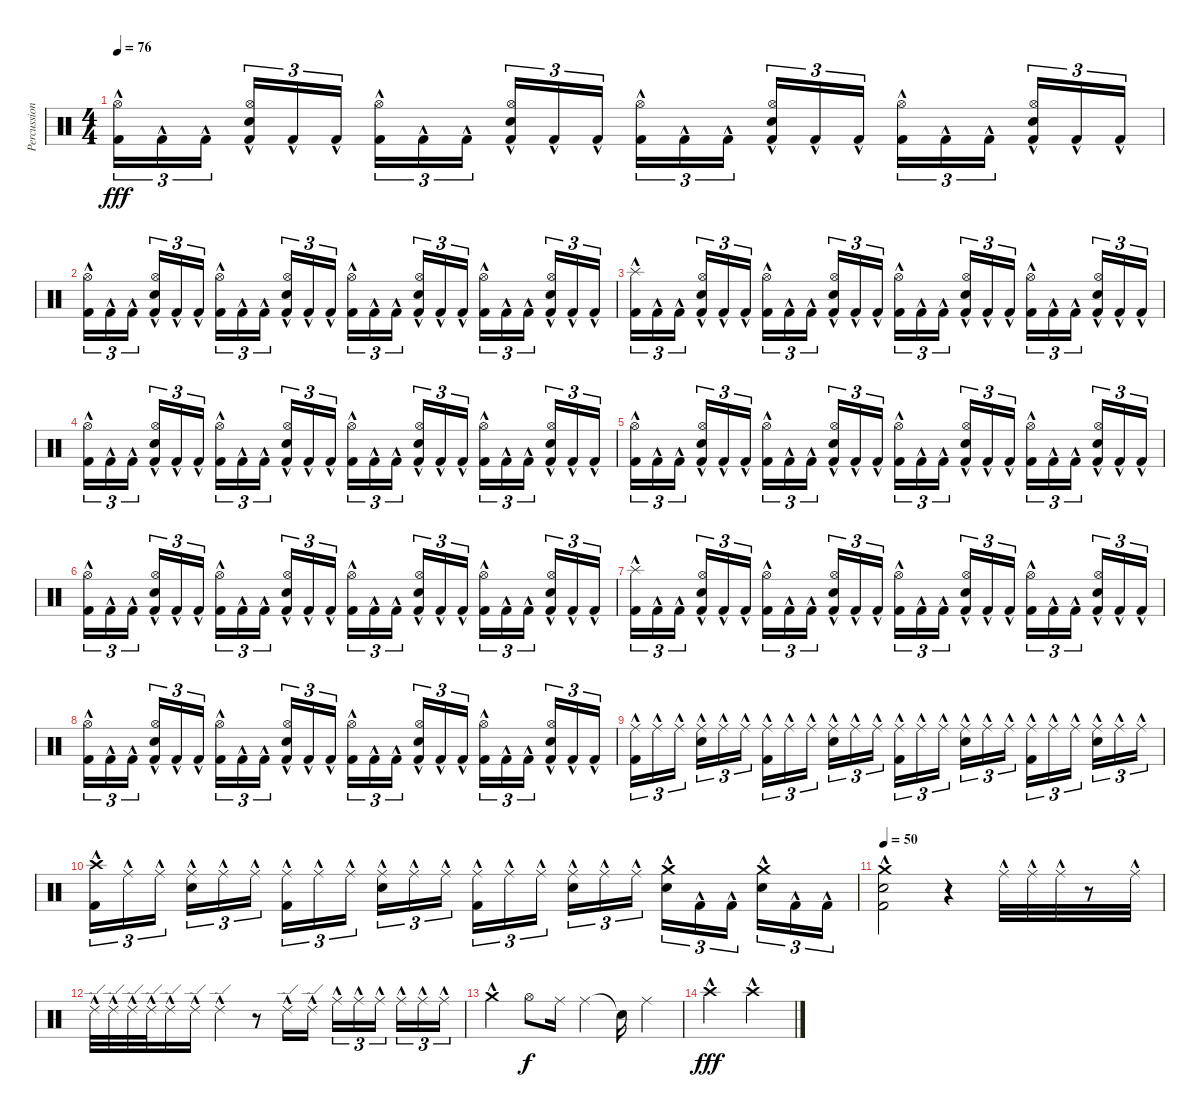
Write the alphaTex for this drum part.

\track ("Percussion" "Percussion") {instrument percussion}
\staff {score}
\articulation defaults
\ts (4 4)
\tempo 76
\clef neutral
\ks c
("Kick (hit) 2"{hac} "Hi-Hat (open)"{hac}).16{tu (3 2) dy fff} "Kick (hit) 2"{hac}.16{tu (3 2)} "Kick (hit) 2"{hac}.16{tu (3 2) beam splitsecondary} ("Kick (hit) 2"{hac} "Electric Snare (hit)"{hac} "Hi-Hat (open)"{hac}).16{tu (3 2)} "Kick (hit) 2"{hac}.16{tu (3 2)} "Kick (hit) 2"{hac}.16{tu (3 2)} ("Hi-Hat (open)"{hac} "Kick (hit) 2"{hac}).16{tu (3 2)} "Kick (hit) 2"{hac}.16{tu (3 2)} "Kick (hit) 2"{hac}.16{tu (3 2) beam splitsecondary} ("Kick (hit) 2"{hac} "Electric Snare (hit)"{hac} "Hi-Hat (open)"{hac}).16{tu (3 2)} "Kick (hit) 2"{hac}.16{tu (3 2)} "Kick (hit) 2"{hac}.16{tu (3 2)} ("Kick (hit) 2"{hac} "Hi-Hat (open)"{hac}).16{tu (3 2)} "Kick (hit) 2"{hac}.16{tu (3 2)} "Kick (hit) 2"{hac}.16{tu (3 2) beam splitsecondary} ("Kick (hit) 2"{hac} "Electric Snare (hit)"{hac} "Hi-Hat (open)"{hac}).16{tu (3 2)} "Kick (hit) 2"{hac}.16{tu (3 2)} "Kick (hit) 2"{hac}.16{tu (3 2)} ("Hi-Hat (open)"{hac} "Kick (hit) 2"{hac}).16{tu (3 2)} "Kick (hit) 2"{hac}.16{tu (3 2)} "Kick (hit) 2"{hac}.16{tu (3 2) beam splitsecondary} ("Kick (hit) 2"{hac} "Electric Snare (hit)"{hac} "Hi-Hat (open)"{hac}).16{tu (3 2)} "Kick (hit) 2"{hac}.16{tu (3 2)} "Kick (hit) 2"{hac}.16{tu (3 2)} |
("Kick (hit) 2"{hac} "Hi-Hat (open)"{hac}).16{tu (3 2)} "Kick (hit) 2"{hac}.16{tu (3 2)} "Kick (hit) 2"{hac}.16{tu (3 2) beam splitsecondary} ("Kick (hit) 2"{hac} "Electric Snare (hit)"{hac} "Hi-Hat (open)"{hac}).16{tu (3 2)} "Kick (hit) 2"{hac}.16{tu (3 2)} "Kick (hit) 2"{hac}.16{tu (3 2)} ("Hi-Hat (open)"{hac} "Kick (hit) 2"{hac}).16{tu (3 2)} "Kick (hit) 2"{hac}.16{tu (3 2)} "Kick (hit) 2"{hac}.16{tu (3 2) beam splitsecondary} ("Kick (hit) 2"{hac} "Electric Snare (hit)"{hac} "Hi-Hat (open)"{hac}).16{tu (3 2)} "Kick (hit) 2"{hac}.16{tu (3 2)} "Kick (hit) 2"{hac}.16{tu (3 2)} ("Kick (hit) 2"{hac} "Hi-Hat (open)"{hac}).16{tu (3 2)} "Kick (hit) 2"{hac}.16{tu (3 2)} "Kick (hit) 2"{hac}.16{tu (3 2) beam splitsecondary} ("Kick (hit) 2"{hac} "Electric Snare (hit)"{hac} "Hi-Hat (open)"{hac}).16{tu (3 2)} "Kick (hit) 2"{hac}.16{tu (3 2)} "Kick (hit) 2"{hac}.16{tu (3 2)} ("Hi-Hat (open)"{hac} "Kick (hit) 2"{hac}).16{tu (3 2)} "Kick (hit) 2"{hac}.16{tu (3 2)} "Kick (hit) 2"{hac}.16{tu (3 2) beam splitsecondary} ("Kick (hit) 2"{hac} "Electric Snare (hit)"{hac} "Hi-Hat (open)"{hac}).16{tu (3 2)} "Kick (hit) 2"{hac}.16{tu (3 2)} "Kick (hit) 2"{hac}.16{tu (3 2)} |
("Kick (hit) 2"{hac} "Splash (hit)"{hac}).16{tu (3 2)} "Kick (hit) 2"{hac}.16{tu (3 2)} "Kick (hit) 2"{hac}.16{tu (3 2) beam splitsecondary} ("Kick (hit) 2"{hac} "Electric Snare (hit)"{hac} "Hi-Hat (open)"{hac}).16{tu (3 2)} "Kick (hit) 2"{hac}.16{tu (3 2)} "Kick (hit) 2"{hac}.16{tu (3 2)} ("Hi-Hat (open)"{hac} "Kick (hit) 2"{hac}).16{tu (3 2)} "Kick (hit) 2"{hac}.16{tu (3 2)} "Kick (hit) 2"{hac}.16{tu (3 2) beam splitsecondary} ("Kick (hit) 2"{hac} "Electric Snare (hit)"{hac} "Hi-Hat (open)"{hac}).16{tu (3 2)} "Kick (hit) 2"{hac}.16{tu (3 2)} "Kick (hit) 2"{hac}.16{tu (3 2)} ("Kick (hit) 2"{hac} "Hi-Hat (open)"{hac}).16{tu (3 2)} "Kick (hit) 2"{hac}.16{tu (3 2)} "Kick (hit) 2"{hac}.16{tu (3 2) beam splitsecondary} ("Kick (hit) 2"{hac} "Electric Snare (hit)"{hac} "Hi-Hat (open)"{hac}).16{tu (3 2)} "Kick (hit) 2"{hac}.16{tu (3 2)} "Kick (hit) 2"{hac}.16{tu (3 2)} ("Hi-Hat (open)"{hac} "Kick (hit) 2"{hac}).16{tu (3 2)} "Kick (hit) 2"{hac}.16{tu (3 2)} "Kick (hit) 2"{hac}.16{tu (3 2) beam splitsecondary} ("Kick (hit) 2"{hac} "Electric Snare (hit)"{hac} "Hi-Hat (open)"{hac}).16{tu (3 2)} "Kick (hit) 2"{hac}.16{tu (3 2)} "Kick (hit) 2"{hac}.16{tu (3 2)} |
("Kick (hit) 2"{hac} "Hi-Hat (open)"{hac}).16{tu (3 2)} "Kick (hit) 2"{hac}.16{tu (3 2)} "Kick (hit) 2"{hac}.16{tu (3 2) beam splitsecondary} ("Kick (hit) 2"{hac} "Electric Snare (hit)"{hac} "Hi-Hat (open)"{hac}).16{tu (3 2)} "Kick (hit) 2"{hac}.16{tu (3 2)} "Kick (hit) 2"{hac}.16{tu (3 2)} ("Hi-Hat (open)"{hac} "Kick (hit) 2"{hac}).16{tu (3 2)} "Kick (hit) 2"{hac}.16{tu (3 2)} "Kick (hit) 2"{hac}.16{tu (3 2) beam splitsecondary} ("Kick (hit) 2"{hac} "Electric Snare (hit)"{hac} "Hi-Hat (open)"{hac}).16{tu (3 2)} "Kick (hit) 2"{hac}.16{tu (3 2)} "Kick (hit) 2"{hac}.16{tu (3 2)} ("Kick (hit) 2"{hac} "Hi-Hat (open)"{hac}).16{tu (3 2)} "Kick (hit) 2"{hac}.16{tu (3 2)} "Kick (hit) 2"{hac}.16{tu (3 2) beam splitsecondary} ("Kick (hit) 2"{hac} "Electric Snare (hit)"{hac} "Hi-Hat (open)"{hac}).16{tu (3 2)} "Kick (hit) 2"{hac}.16{tu (3 2)} "Kick (hit) 2"{hac}.16{tu (3 2)} ("Hi-Hat (open)"{hac} "Kick (hit) 2"{hac}).16{tu (3 2)} "Kick (hit) 2"{hac}.16{tu (3 2)} "Kick (hit) 2"{hac}.16{tu (3 2) beam splitsecondary} ("Kick (hit) 2"{hac} "Electric Snare (hit)"{hac} "Hi-Hat (open)"{hac}).16{tu (3 2)} "Kick (hit) 2"{hac}.16{tu (3 2)} "Kick (hit) 2"{hac}.16{tu (3 2)} |
("Kick (hit) 2"{hac} "Hi-Hat (open)"{hac}).16{tu (3 2)} "Kick (hit) 2"{hac}.16{tu (3 2)} "Kick (hit) 2"{hac}.16{tu (3 2) beam splitsecondary} ("Kick (hit) 2"{hac} "Electric Snare (hit)"{hac} "Hi-Hat (open)"{hac}).16{tu (3 2)} "Kick (hit) 2"{hac}.16{tu (3 2)} "Kick (hit) 2"{hac}.16{tu (3 2)} ("Hi-Hat (open)"{hac} "Kick (hit) 2"{hac}).16{tu (3 2)} "Kick (hit) 2"{hac}.16{tu (3 2)} "Kick (hit) 2"{hac}.16{tu (3 2) beam splitsecondary} ("Kick (hit) 2"{hac} "Electric Snare (hit)"{hac} "Hi-Hat (open)"{hac}).16{tu (3 2)} "Kick (hit) 2"{hac}.16{tu (3 2)} "Kick (hit) 2"{hac}.16{tu (3 2)} ("Kick (hit) 2"{hac} "Hi-Hat (open)"{hac}).16{tu (3 2)} "Kick (hit) 2"{hac}.16{tu (3 2)} "Kick (hit) 2"{hac}.16{tu (3 2) beam splitsecondary} ("Kick (hit) 2"{hac} "Electric Snare (hit)"{hac} "Hi-Hat (open)"{hac}).16{tu (3 2)} "Kick (hit) 2"{hac}.16{tu (3 2)} "Kick (hit) 2"{hac}.16{tu (3 2)} ("Hi-Hat (open)"{hac} "Kick (hit) 2"{hac}).16{tu (3 2)} "Kick (hit) 2"{hac}.16{tu (3 2)} "Kick (hit) 2"{hac}.16{tu (3 2) beam splitsecondary} ("Kick (hit) 2"{hac} "Electric Snare (hit)"{hac} "Hi-Hat (open)"{hac}).16{tu (3 2)} "Kick (hit) 2"{hac}.16{tu (3 2)} "Kick (hit) 2"{hac}.16{tu (3 2)} |
("Kick (hit) 2"{hac} "Hi-Hat (open)"{hac}).16{tu (3 2)} "Kick (hit) 2"{hac}.16{tu (3 2)} "Kick (hit) 2"{hac}.16{tu (3 2) beam splitsecondary} ("Kick (hit) 2"{hac} "Electric Snare (hit)"{hac} "Hi-Hat (open)"{hac}).16{tu (3 2)} "Kick (hit) 2"{hac}.16{tu (3 2)} "Kick (hit) 2"{hac}.16{tu (3 2)} ("Hi-Hat (open)"{hac} "Kick (hit) 2"{hac}).16{tu (3 2)} "Kick (hit) 2"{hac}.16{tu (3 2)} "Kick (hit) 2"{hac}.16{tu (3 2) beam splitsecondary} ("Kick (hit) 2"{hac} "Electric Snare (hit)"{hac} "Hi-Hat (open)"{hac}).16{tu (3 2)} "Kick (hit) 2"{hac}.16{tu (3 2)} "Kick (hit) 2"{hac}.16{tu (3 2)} ("Kick (hit) 2"{hac} "Hi-Hat (open)"{hac}).16{tu (3 2)} "Kick (hit) 2"{hac}.16{tu (3 2)} "Kick (hit) 2"{hac}.16{tu (3 2) beam splitsecondary} ("Kick (hit) 2"{hac} "Electric Snare (hit)"{hac} "Hi-Hat (open)"{hac}).16{tu (3 2)} "Kick (hit) 2"{hac}.16{tu (3 2)} "Kick (hit) 2"{hac}.16{tu (3 2)} ("Hi-Hat (open)"{hac} "Kick (hit) 2"{hac}).16{tu (3 2)} "Kick (hit) 2"{hac}.16{tu (3 2)} "Kick (hit) 2"{hac}.16{tu (3 2) beam splitsecondary} ("Kick (hit) 2"{hac} "Electric Snare (hit)"{hac} "Hi-Hat (open)"{hac}).16{tu (3 2)} "Kick (hit) 2"{hac}.16{tu (3 2)} "Kick (hit) 2"{hac}.16{tu (3 2)} |
("Kick (hit) 2"{hac} "Splash (hit)"{hac}).16{tu (3 2)} "Kick (hit) 2"{hac}.16{tu (3 2)} "Kick (hit) 2"{hac}.16{tu (3 2) beam splitsecondary} ("Kick (hit) 2"{hac} "Electric Snare (hit)"{hac} "Hi-Hat (open)"{hac}).16{tu (3 2)} "Kick (hit) 2"{hac}.16{tu (3 2)} "Kick (hit) 2"{hac}.16{tu (3 2)} ("Hi-Hat (open)"{hac} "Kick (hit) 2"{hac}).16{tu (3 2)} "Kick (hit) 2"{hac}.16{tu (3 2)} "Kick (hit) 2"{hac}.16{tu (3 2) beam splitsecondary} ("Kick (hit) 2"{hac} "Electric Snare (hit)"{hac} "Hi-Hat (open)"{hac}).16{tu (3 2)} "Kick (hit) 2"{hac}.16{tu (3 2)} "Kick (hit) 2"{hac}.16{tu (3 2)} ("Kick (hit) 2"{hac} "Hi-Hat (open)"{hac}).16{tu (3 2)} "Kick (hit) 2"{hac}.16{tu (3 2)} "Kick (hit) 2"{hac}.16{tu (3 2) beam splitsecondary} ("Kick (hit) 2"{hac} "Electric Snare (hit)"{hac} "Hi-Hat (open)"{hac}).16{tu (3 2)} "Kick (hit) 2"{hac}.16{tu (3 2)} "Kick (hit) 2"{hac}.16{tu (3 2)} ("Hi-Hat (open)"{hac} "Kick (hit) 2"{hac}).16{tu (3 2)} "Kick (hit) 2"{hac}.16{tu (3 2)} "Kick (hit) 2"{hac}.16{tu (3 2) beam splitsecondary} ("Kick (hit) 2"{hac} "Electric Snare (hit)"{hac} "Hi-Hat (open)"{hac}).16{tu (3 2)} "Kick (hit) 2"{hac}.16{tu (3 2)} "Kick (hit) 2"{hac}.16{tu (3 2)} |
("Kick (hit) 2"{hac} "Hi-Hat (open)"{hac}).16{tu (3 2)} "Kick (hit) 2"{hac}.16{tu (3 2)} "Kick (hit) 2"{hac}.16{tu (3 2) beam splitsecondary} ("Kick (hit) 2"{hac} "Electric Snare (hit)"{hac} "Hi-Hat (open)"{hac}).16{tu (3 2)} "Kick (hit) 2"{hac}.16{tu (3 2)} "Kick (hit) 2"{hac}.16{tu (3 2)} ("Hi-Hat (open)"{hac} "Kick (hit) 2"{hac}).16{tu (3 2)} "Kick (hit) 2"{hac}.16{tu (3 2)} "Kick (hit) 2"{hac}.16{tu (3 2) beam splitsecondary} ("Kick (hit) 2"{hac} "Electric Snare (hit)"{hac} "Hi-Hat (open)"{hac}).16{tu (3 2)} "Kick (hit) 2"{hac}.16{tu (3 2)} "Kick (hit) 2"{hac}.16{tu (3 2)} ("Kick (hit) 2"{hac} "Hi-Hat (open)"{hac}).16{tu (3 2)} "Kick (hit) 2"{hac}.16{tu (3 2)} "Kick (hit) 2"{hac}.16{tu (3 2) beam splitsecondary} ("Kick (hit) 2"{hac} "Electric Snare (hit)"{hac} "Hi-Hat (open)"{hac}).16{tu (3 2)} "Kick (hit) 2"{hac}.16{tu (3 2)} "Kick (hit) 2"{hac}.16{tu (3 2)} ("Hi-Hat (open)"{hac} "Kick (hit) 2"{hac}).16{tu (3 2)} "Kick (hit) 2"{hac}.16{tu (3 2)} "Kick (hit) 2"{hac}.16{tu (3 2) beam splitsecondary} ("Kick (hit) 2"{hac} "Electric Snare (hit)"{hac} "Hi-Hat (open)"{hac}).16{tu (3 2)} "Kick (hit) 2"{hac}.16{tu (3 2)} "Kick (hit) 2"{hac}.16{tu (3 2)} |
("Ride (middle)"{hac} "Kick (hit) 2"{hac}).16{tu (3 2)} "Ride (middle)"{hac}.16{tu (3 2)} "Ride (middle)"{hac}.16{tu (3 2) beam splitsecondary} ("Ride (middle)"{hac} "Electric Snare (hit)"{hac}).16{tu (3 2)} "Ride (middle)"{hac}.16{tu (3 2)} "Ride (middle)"{hac}.16{tu (3 2)} ("Ride (middle)"{hac} "Kick (hit) 2"{hac}).16{tu (3 2)} "Ride (middle)"{hac}.16{tu (3 2)} "Ride (middle)"{hac}.16{tu (3 2) beam splitsecondary} ("Ride (middle)"{hac} "Electric Snare (hit)"{hac}).16{tu (3 2)} "Ride (middle)"{hac}.16{tu (3 2)} "Ride (middle)"{hac}.16{tu (3 2)} ("Ride (middle)"{hac} "Kick (hit) 2"{hac}).16{tu (3 2)} "Ride (middle)"{hac}.16{tu (3 2)} "Ride (middle)"{hac}.16{tu (3 2) beam splitsecondary} ("Ride (middle)"{hac} "Electric Snare (hit)"{hac}).16{tu (3 2)} "Ride (middle)"{hac}.16{tu (3 2)} "Ride (middle)"{hac}.16{tu (3 2)} ("Ride (middle)"{hac} "Kick (hit) 2"{hac}).16{tu (3 2)} "Ride (middle)"{hac}.16{tu (3 2)} "Ride (middle)"{hac}.16{tu (3 2) beam splitsecondary} ("Ride (middle)"{hac} "Electric Snare (hit)"{hac}).16{tu (3 2)} "Ride (middle)"{hac}.16{tu (3 2)} "Ride (middle)"{hac}.16{tu (3 2)} |
("Crash high (hit)"{hac} "Kick (hit) 2"{hac}).16{tu (3 2)} "Ride (middle)"{hac}.16{tu (3 2)} "Ride (middle)"{hac}.16{tu (3 2) beam splitsecondary} ("Ride (middle)"{hac} "Electric Snare (hit)"{hac}).16{tu (3 2)} "Ride (middle)"{hac}.16{tu (3 2)} "Ride (middle)"{hac}.16{tu (3 2)} ("Ride (middle)"{hac} "Kick (hit) 2"{hac}).16{tu (3 2)} "Ride (middle)"{hac}.16{tu (3 2)} "Ride (middle)"{hac}.16{tu (3 2) beam splitsecondary} ("Ride (middle)"{hac} "Electric Snare (hit)"{hac}).16{tu (3 2)} "Ride (middle)"{hac}.16{tu (3 2)} "Ride (middle)"{hac}.16{tu (3 2)} ("Ride (middle)"{hac} "Kick (hit) 2"{hac}).16{tu (3 2)} "Ride (middle)"{hac}.16{tu (3 2)} "Ride (middle)"{hac}.16{tu (3 2) beam splitsecondary} ("Ride (middle)"{hac} "Electric Snare (hit)"{hac}).16{tu (3 2)} "Ride (middle)"{hac}.16{tu (3 2)} "Ride (middle)"{hac}.16{tu (3 2)} ("Crash medium (hit)"{hac} "Electric Snare (hit)"{hac}).16{tu (3 2)} "Kick (hit) 2"{hac}.16{tu (3 2)} "Kick (hit) 2"{hac}.16{tu (3 2) beam splitsecondary} ("Crash medium (hit)"{hac} "Electric Snare (hit)"{hac}).16{tu (3 2)} "Kick (hit) 2"{hac}.16{tu (3 2)} "Kick (hit) 2"{hac}.16{tu (3 2)} |
\tempo 50
("Electric Snare (hit)"{hac} "Kick (hit) 2"{hac} "Crash medium (hit)"{hac}).2 r.4 "Ride (middle)"{hac}.32 "Ride (middle)"{hac}.32 "Ride (middle)"{hac}.32 r.8 "Ride (middle)"{hac}.32 |
"Ride (edge) 2"{hac}.32 "Ride (edge) 2"{hac}.32 "Ride (edge) 2"{hac}.32 "Ride (edge) 2"{hac}.32 "Ride (edge) 2"{hac}.16 "Ride (edge) 2"{hac}.16 "Ride (edge) 2"{hac}.4 r.8 "Ride (edge) 2"{hac}.16 "Ride (edge) 2"{hac}.16 "Ride (middle)"{hac}.16{tu (3 2)} "Ride (middle)"{hac}.16{tu (3 2)} "Ride (middle)"{hac}.16{tu (3 2) beam splitsecondary} "Ride (middle)"{hac}.16{tu (3 2)} "Ride (middle)"{hac}.16{tu (3 2)} "Ride (middle)"{hac}.16{tu (3 2)} |
"Crash medium (hit)"{hac}.4 "Hi-Hat (open)".8{dy f} "Ride (middle)".16 "Ride (middle)".4 "Snare (hit)"{t}.16 "Ride (middle)".4 |
"Crash high (hit)"{hac}.2{dy fff} "Crash high (hit)"{hac}.2
